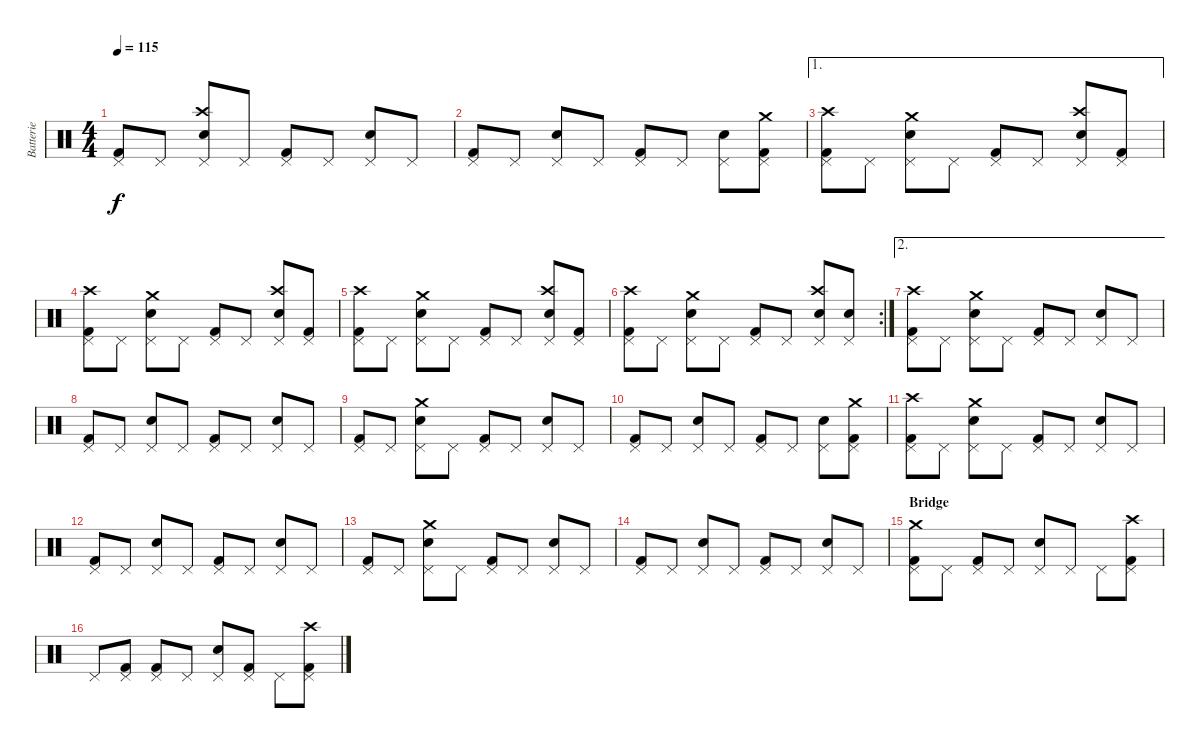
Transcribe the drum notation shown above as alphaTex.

\track ("Batterie" "Batterie") {instrument percussion}
\staff {score}
\articulation defaults
\ts (4 4)
\tempo 115
\clef neutral
\ks c
("Pedal Hi-Hat (hit)" "Kick (hit) 2").8{dy f} "Pedal Hi-Hat (hit)".8 ("Pedal Hi-Hat (hit)" "Crash high (hit)" "Snare (hit) 2").8 "Pedal Hi-Hat (hit)".8 ("Pedal Hi-Hat (hit)" "Kick (hit) 2").8 "Pedal Hi-Hat (hit)".8 ("Pedal Hi-Hat (hit)" "Snare (hit) 2").8 "Pedal Hi-Hat (hit)".8 |
("Pedal Hi-Hat (hit)" "Kick (hit) 2").8 "Pedal Hi-Hat (hit)".8 ("Pedal Hi-Hat (hit)" "Snare (hit) 2").8 "Pedal Hi-Hat (hit)".8 ("Pedal Hi-Hat (hit)" "Kick (hit) 2").8 "Pedal Hi-Hat (hit)".8 ("Pedal Hi-Hat (hit)" "Snare (hit) 2").8 ("Pedal Hi-Hat (hit)" "Crash medium (hit)" "Kick (hit) 2").8 |
\ae 1
("Pedal Hi-Hat (hit)" "Crash high (hit)" "Kick (hit) 2").8 "Pedal Hi-Hat (hit)".8 ("Pedal Hi-Hat (hit)" "Crash medium (hit)" "Snare (hit) 2").8 "Pedal Hi-Hat (hit)".8 ("Pedal Hi-Hat (hit)" "Kick (hit) 2").8 "Pedal Hi-Hat (hit)".8 ("Pedal Hi-Hat (hit)" "Crash high (hit)" "Snare (hit) 2").8 ("Pedal Hi-Hat (hit)" "Kick (hit) 2").8 |
("Pedal Hi-Hat (hit)" "Crash high (hit)" "Kick (hit) 2").8 "Pedal Hi-Hat (hit)".8 ("Pedal Hi-Hat (hit)" "Crash medium (hit)" "Snare (hit) 2").8 "Pedal Hi-Hat (hit)".8 ("Pedal Hi-Hat (hit)" "Kick (hit) 2").8 "Pedal Hi-Hat (hit)".8 ("Pedal Hi-Hat (hit)" "Crash high (hit)" "Snare (hit) 2").8 ("Pedal Hi-Hat (hit)" "Kick (hit) 2").8 |
("Pedal Hi-Hat (hit)" "Crash high (hit)" "Kick (hit) 2").8 "Pedal Hi-Hat (hit)".8 ("Pedal Hi-Hat (hit)" "Crash medium (hit)" "Snare (hit) 2").8 "Pedal Hi-Hat (hit)".8 ("Pedal Hi-Hat (hit)" "Kick (hit) 2").8 "Pedal Hi-Hat (hit)".8 ("Pedal Hi-Hat (hit)" "Crash high (hit)" "Snare (hit) 2").8 ("Pedal Hi-Hat (hit)" "Kick (hit) 2").8 |
\rc 2
("Pedal Hi-Hat (hit)" "Crash high (hit)" "Kick (hit) 2").8 "Pedal Hi-Hat (hit)".8 ("Pedal Hi-Hat (hit)" "Crash medium (hit)" "Snare (hit) 2").8 "Pedal Hi-Hat (hit)".8 ("Pedal Hi-Hat (hit)" "Kick (hit) 2").8 "Pedal Hi-Hat (hit)".8 ("Pedal Hi-Hat (hit)" "Crash high (hit)" "Snare (hit) 2").8 ("Pedal Hi-Hat (hit)" "Snare (hit) 2").8 |
\ae 2
("Pedal Hi-Hat (hit)" "Crash high (hit)" "Kick (hit) 2").8 "Pedal Hi-Hat (hit)".8 ("Pedal Hi-Hat (hit)" "Crash medium (hit)" "Snare (hit) 2").8 "Pedal Hi-Hat (hit)".8 ("Pedal Hi-Hat (hit)" "Kick (hit) 2").8 "Pedal Hi-Hat (hit)".8 ("Pedal Hi-Hat (hit)" "Snare (hit) 2").8 "Pedal Hi-Hat (hit)".8 |
("Pedal Hi-Hat (hit)" "Kick (hit) 2").8 "Pedal Hi-Hat (hit)".8 ("Pedal Hi-Hat (hit)" "Snare (hit) 2").8 "Pedal Hi-Hat (hit)".8 ("Pedal Hi-Hat (hit)" "Kick (hit) 2").8 "Pedal Hi-Hat (hit)".8 ("Pedal Hi-Hat (hit)" "Snare (hit) 2").8 "Pedal Hi-Hat (hit)".8 |
("Pedal Hi-Hat (hit)" "Kick (hit) 2").8 "Pedal Hi-Hat (hit)".8 ("Pedal Hi-Hat (hit)" "Crash medium (hit)" "Snare (hit) 2").8 "Pedal Hi-Hat (hit)".8 ("Pedal Hi-Hat (hit)" "Kick (hit) 2").8 "Pedal Hi-Hat (hit)".8 ("Pedal Hi-Hat (hit)" "Snare (hit) 2").8 "Pedal Hi-Hat (hit)".8 |
("Pedal Hi-Hat (hit)" "Kick (hit) 2").8 "Pedal Hi-Hat (hit)".8 ("Pedal Hi-Hat (hit)" "Snare (hit) 2").8 "Pedal Hi-Hat (hit)".8 ("Pedal Hi-Hat (hit)" "Kick (hit) 2").8 "Pedal Hi-Hat (hit)".8 ("Pedal Hi-Hat (hit)" "Snare (hit) 2").8 ("Pedal Hi-Hat (hit)" "Crash medium (hit)" "Kick (hit) 2").8 |
("Pedal Hi-Hat (hit)" "Crash high (hit)" "Kick (hit) 2").8 "Pedal Hi-Hat (hit)".8 ("Pedal Hi-Hat (hit)" "Crash medium (hit)" "Snare (hit) 2").8 "Pedal Hi-Hat (hit)".8 ("Pedal Hi-Hat (hit)" "Kick (hit) 2").8 "Pedal Hi-Hat (hit)".8 ("Pedal Hi-Hat (hit)" "Snare (hit) 2").8 "Pedal Hi-Hat (hit)".8 |
("Pedal Hi-Hat (hit)" "Kick (hit) 2").8 "Pedal Hi-Hat (hit)".8 ("Pedal Hi-Hat (hit)" "Snare (hit) 2").8 "Pedal Hi-Hat (hit)".8 ("Pedal Hi-Hat (hit)" "Kick (hit) 2").8 "Pedal Hi-Hat (hit)".8 ("Pedal Hi-Hat (hit)" "Snare (hit) 2").8 "Pedal Hi-Hat (hit)".8 |
("Pedal Hi-Hat (hit)" "Kick (hit) 2").8 "Pedal Hi-Hat (hit)".8 ("Pedal Hi-Hat (hit)" "Crash medium (hit)" "Snare (hit) 2").8 "Pedal Hi-Hat (hit)".8 ("Pedal Hi-Hat (hit)" "Kick (hit) 2").8 "Pedal Hi-Hat (hit)".8 ("Pedal Hi-Hat (hit)" "Snare (hit) 2").8 "Pedal Hi-Hat (hit)".8 |
("Pedal Hi-Hat (hit)" "Kick (hit) 2").8 "Pedal Hi-Hat (hit)".8 ("Pedal Hi-Hat (hit)" "Snare (hit) 2").8 "Pedal Hi-Hat (hit)".8 ("Pedal Hi-Hat (hit)" "Kick (hit) 2").8 "Pedal Hi-Hat (hit)".8 ("Pedal Hi-Hat (hit)" "Snare (hit) 2").8 "Pedal Hi-Hat (hit)".8 |
\section ("" "Bridge")
("Pedal Hi-Hat (hit)" "Crash medium (hit)" "Kick (hit) 2").8 "Pedal Hi-Hat (hit)".8 ("Pedal Hi-Hat (hit)" "Kick (hit) 2").8 "Pedal Hi-Hat (hit)".8 ("Pedal Hi-Hat (hit)" "Snare (hit) 2").8 "Pedal Hi-Hat (hit)".8 "Pedal Hi-Hat (hit)".8 ("Pedal Hi-Hat (hit)" "Crash high (hit)" "Kick (hit) 2").8 |
"Pedal Hi-Hat (hit)".8 ("Pedal Hi-Hat (hit)" "Kick (hit) 2").8 ("Pedal Hi-Hat (hit)" "Kick (hit) 2").8 "Pedal Hi-Hat (hit)".8 ("Pedal Hi-Hat (hit)" "Snare (hit) 2").8 ("Pedal Hi-Hat (hit)" "Kick (hit) 2").8 "Pedal Hi-Hat (hit)".8 ("Pedal Hi-Hat (hit)" "Crash high (hit)" "Kick (hit) 2").8
